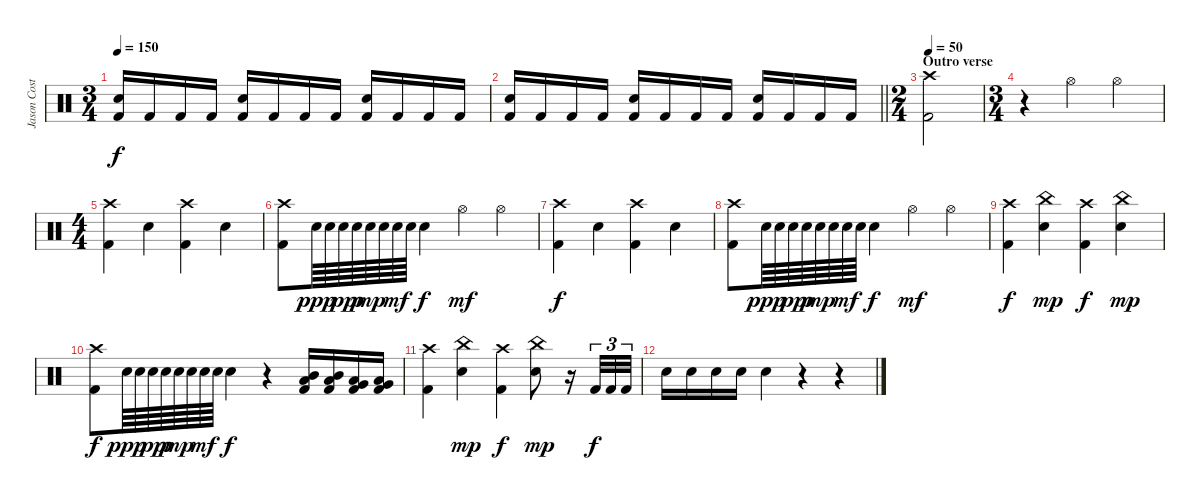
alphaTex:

\track ("Jason Costa" "Jason Cost") {instrument percussion}
\staff {score}
\articulation defaults
\ts (3 4)
\tempo 150
\clef neutral
\ks c
("Electric Snare (hit)" "Kick (hit) 2").16{dy f} "Kick (hit) 2".16 "Kick (hit) 2".16 "Kick (hit) 2".16 ("Electric Snare (hit)" "Kick (hit) 2").16 "Kick (hit) 2".16 "Kick (hit) 2".16 "Kick (hit) 2".16 ("Electric Snare (hit)" "Kick (hit) 2").16 "Kick (hit) 2".16 "Kick (hit) 2".16 "Kick (hit) 2".16 |
\barLineRight lightlight
("Electric Snare (hit)" "Kick (hit) 2").16 "Kick (hit) 2".16 "Kick (hit) 2".16 "Kick (hit) 2".16 ("Electric Snare (hit)" "Kick (hit) 2").16 "Kick (hit) 2".16 "Kick (hit) 2".16 "Kick (hit) 2".16 ("Electric Snare (hit)" "Kick (hit) 2").16 "Kick (hit) 2".16 "Kick (hit) 2".16 "Kick (hit) 2".16 |
\ts (2 4)
\section ("" "Outro verse")
\tempo 50
("Crash high (hit)" "Kick (hit) 2").2 |
\ts (3 4)
r.4 "Hi-Hat (open)".4 "Hi-Hat (open)".4 |
\ts (4 4)
("Crash high (hit)" "Kick (hit) 2").4 "Electric Snare (hit)".4 ("Crash high (hit)" "Kick (hit) 2").4 "Electric Snare (hit)".4 |
("Crash high (hit)" "Kick (hit) 2").8 "Electric Snare (hit)".64{dy ppp} "Electric Snare (hit)".64 "Electric Snare (hit)".64{dy pp} "Electric Snare (hit)".64{dy p} "Electric Snare (hit)".64{dy mp} "Electric Snare (hit)".64 "Electric Snare (hit)".64{dy mf} "Electric Snare (hit)".64 "Electric Snare (hit)".4{dy f} "Hi-Hat (open)".4{dy mf} "Hi-Hat (open)".4 |
("Crash high (hit)" "Kick (hit) 2").4{dy f} "Electric Snare (hit)".4 ("Crash high (hit)" "Kick (hit) 2").4 "Electric Snare (hit)".4 |
("Crash high (hit)" "Kick (hit) 2").8 "Electric Snare (hit)".64{dy ppp} "Electric Snare (hit)".64 "Electric Snare (hit)".64{dy pp} "Electric Snare (hit)".64{dy p} "Electric Snare (hit)".64{dy mp} "Electric Snare (hit)".64 "Electric Snare (hit)".64{dy mf} "Electric Snare (hit)".64 "Electric Snare (hit)".4{dy f} "Hi-Hat (open)".4{dy mf} "Hi-Hat (open)".4 |
("Crash high (hit)" "Kick (hit) 2").4{dy f} ("China (hit)" "Electric Snare (hit)").4{dy mp} ("Crash high (hit)" "Kick (hit) 2").4{dy f} ("China (hit)" "Electric Snare (hit)").4{dy mp} |
("Crash high (hit)" "Kick (hit) 2").8{dy f} "Electric Snare (hit)".64{dy ppp} "Electric Snare (hit)".64 "Electric Snare (hit)".64{dy pp} "Electric Snare (hit)".64{dy p} "Electric Snare (hit)".64{dy mp} "Electric Snare (hit)".64 "Electric Snare (hit)".64{dy mf} "Electric Snare (hit)".64 "Electric Snare (hit)".4{dy f} r.4 ("Mid Tom (hit)" "Low Tom (hit)" "Kick (hit) 2").16 ("Mid Tom (hit)" "Low Tom (hit)" "Kick (hit) 2").16 ("Low Tom (hit)" "Very Low Tom (hit)" "Kick (hit) 2").16 ("Low Tom (hit)" "Very Low Tom (hit)" "Kick (hit) 2").16 |
("Crash high (hit)" "Kick (hit) 2").4 ("China (hit)" "Electric Snare (hit)").4{dy mp} ("Crash high (hit)" "Kick (hit) 2").4{dy f} ("China (hit)" "Electric Snare (hit)").8{dy mp} r.16 "Kick (hit) 2".32{tu (3 2) dy f} "Kick (hit) 2".32{tu (3 2)} "Kick (hit) 2".32{tu (3 2)} |
"Electric Snare (hit)".16 "Electric Snare (hit)".16 "Electric Snare (hit)".16 "Electric Snare (hit)".16 "Electric Snare (hit)".4 r.4 r.4
